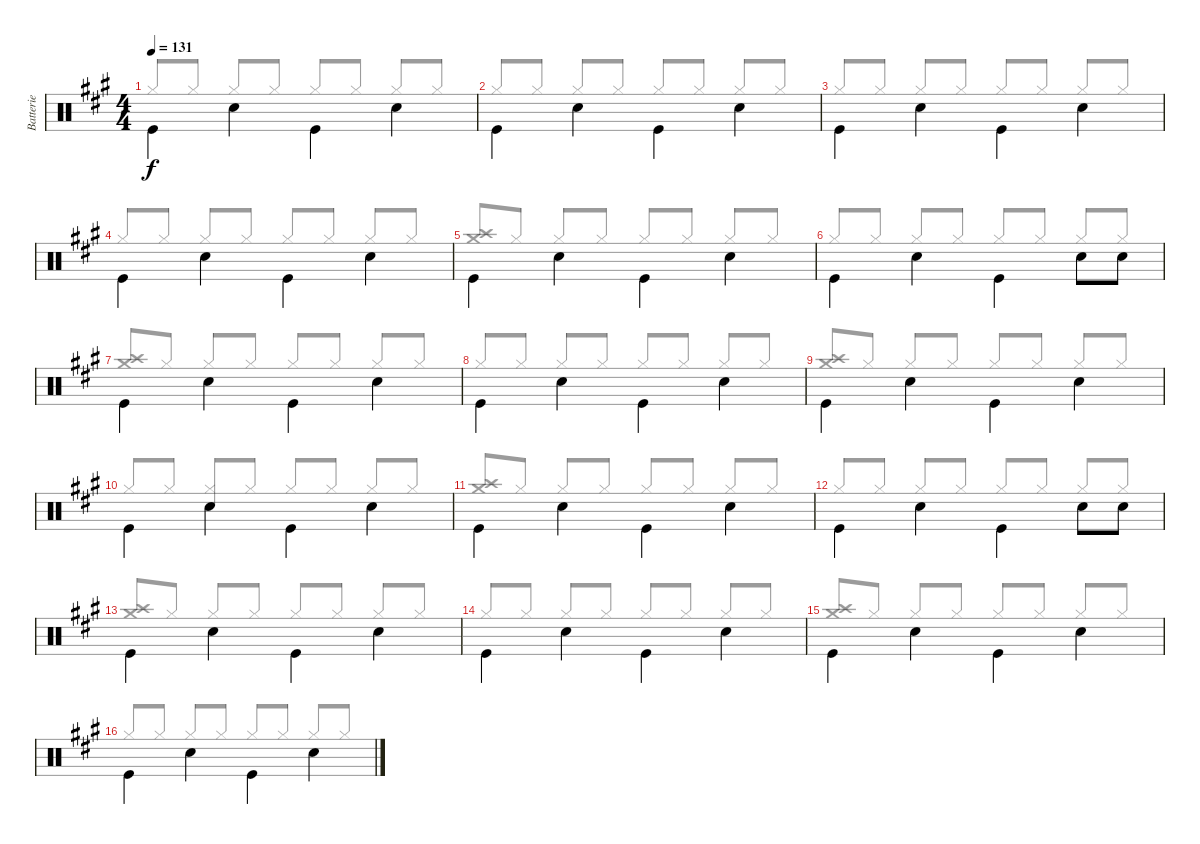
\track ("Batterie" "Batterie") {instrument percussion}
\staff {score}
\articulation defaults
\voice
\ts (4 4)
\tempo 131
\clef neutral
\ks a "Kick (hit)".4{dy f beam Down} "Snare (hit) 2".4{beam Down} "Kick (hit)".4{beam Down} "Snare (hit) 2".4{beam Down}
|
"Kick (hit)".4{beam Down} "Snare (hit) 2".4{beam Down} "Kick (hit)".4{beam Down} "Snare (hit) 2".4{beam Down} |
"Kick (hit)".4{beam Down} "Snare (hit) 2".4{beam Down} "Kick (hit)".4{beam Down} "Snare (hit) 2".4{beam Down} |
"Kick (hit)".4{beam Down} "Snare (hit) 2".4{beam Down} "Kick (hit)".4{beam Down} "Snare (hit) 2".4{beam Down} |
"Kick (hit)".4{beam Down} "Snare (hit) 2".4{beam Down} "Kick (hit)".4{beam Down} "Snare (hit) 2".4{beam Down} |
"Kick (hit)".4{beam Down} "Snare (hit) 2".4{beam Down} "Kick (hit)".4{beam Down} "Snare (hit) 2".8{beam Down} "Snare (hit) 2".8{beam Down} |
"Kick (hit)".4{beam Down} "Snare (hit) 2".4{beam Down} "Kick (hit)".4{beam Down} "Snare (hit) 2".4{beam Down} |
"Kick (hit)".4{beam Down} "Snare (hit) 2".4{beam Down} "Kick (hit)".4{beam Down} "Snare (hit) 2".4{beam Down} |
"Kick (hit)".4{beam Down} "Snare (hit) 2".4{beam Down} "Kick (hit)".4{beam Down} "Snare (hit) 2".4{beam Down} |
"Kick (hit)".4{beam Down} "Snare (hit) 2".4{beam Down} "Kick (hit)".4{beam Down} "Snare (hit) 2".4{beam Down} |
"Kick (hit)".4{beam Down} "Snare (hit) 2".4{beam Down} "Kick (hit)".4{beam Down} "Snare (hit) 2".4{beam Down} |
"Kick (hit)".4{beam Down} "Snare (hit) 2".4{beam Down} "Kick (hit)".4{beam Down} "Snare (hit) 2".8{beam Down} "Snare (hit) 2".8{beam Down} |
"Kick (hit)".4{beam Down} "Snare (hit) 2".4{beam Down} "Kick (hit)".4{beam Down} "Snare (hit) 2".4{beam Down} |
"Kick (hit)".4{beam Down} "Snare (hit) 2".4{beam Down} "Kick (hit)".4{beam Down} "Snare (hit) 2".4{beam Down} |
"Kick (hit)".4{beam Down} "Snare (hit) 2".4{beam Down} "Kick (hit)".4{beam Down} "Snare (hit) 2".4{beam Down} |
"Kick (hit)".4{beam Down} "Snare (hit) 2".4{beam Down} "Kick (hit)".4{beam Down} "Snare (hit) 2".4{beam Down}
\voice
\clef neutral
\ottava regular
\simile none
\ks a "Hi-Hat (closed)".8{dy f beam Up} "Hi-Hat (closed)".8{beam Up} "Hi-Hat (closed)".8{beam Up} "Hi-Hat (closed)".8{beam Up} "Hi-Hat (closed)".8{beam Up} "Hi-Hat (closed)".8{beam Up} "Hi-Hat (closed)".8{beam Up} "Hi-Hat (closed)".8{beam Up}
|
"Hi-Hat (closed)".8{beam Up} "Hi-Hat (closed)".8{beam Up} "Hi-Hat (closed)".8{beam Up} "Hi-Hat (closed)".8{beam Up} "Hi-Hat (closed)".8{beam Up} "Hi-Hat (closed)".8{beam Up} "Hi-Hat (closed)".8{beam Up} "Hi-Hat (closed)".8{beam Up} |
"Hi-Hat (closed)".8{beam Up} "Hi-Hat (closed)".8{beam Up} "Hi-Hat (closed)".8{beam Up} "Hi-Hat (closed)".8{beam Up} "Hi-Hat (closed)".8{beam Up} "Hi-Hat (closed)".8{beam Up} "Hi-Hat (closed)".8{beam Up} "Hi-Hat (closed)".8{beam Up} |
"Hi-Hat (closed)".8{beam Up} "Hi-Hat (closed)".8{beam Up} "Hi-Hat (closed)".8{beam Up} "Hi-Hat (closed)".8{beam Up} "Hi-Hat (closed)".8{beam Up} "Hi-Hat (closed)".8{beam Up} "Hi-Hat (closed)".8{beam Up} "Hi-Hat (closed)".8{beam Up} |
("Crash medium (hit)" "Crash high (hit)").8{beam Up} "Hi-Hat (closed)".8{beam Up} "Hi-Hat (closed)".8{beam Up} "Hi-Hat (closed)".8{beam Up} "Hi-Hat (closed)".8{beam Up} "Hi-Hat (closed)".8{beam Up} "Hi-Hat (closed)".8{beam Up} "Hi-Hat (closed)".8{beam Up} |
"Hi-Hat (closed)".8{beam Up} "Hi-Hat (closed)".8{beam Up} "Hi-Hat (closed)".8{beam Up} "Hi-Hat (closed)".8{beam Up} "Hi-Hat (closed)".8{beam Up} "Hi-Hat (closed)".8{beam Up} "Hi-Hat (closed)".8{beam Up} "Hi-Hat (closed)".8{beam Up} |
("Crash medium (hit)" "Crash high (hit)").8{beam Up} "Hi-Hat (closed)".8{beam Up} "Hi-Hat (closed)".8{beam Up} "Hi-Hat (closed)".8{beam Up} "Hi-Hat (closed)".8{beam Up} "Hi-Hat (closed)".8{beam Up} "Hi-Hat (closed)".8{beam Up} "Hi-Hat (closed)".8{beam Up} |
"Hi-Hat (closed)".8{beam Up} "Hi-Hat (closed)".8{beam Up} "Hi-Hat (closed)".8{beam Up} "Hi-Hat (closed)".8{beam Up} "Hi-Hat (closed)".8{beam Up} "Hi-Hat (closed)".8{beam Up} "Hi-Hat (closed)".8{beam Up} "Hi-Hat (closed)".8{beam Up} |
("Crash medium (hit)" "Crash high (hit)").8{beam Up} "Hi-Hat (closed)".8{beam Up} "Hi-Hat (closed)".8{beam Up} "Hi-Hat (closed)".8{beam Up} "Hi-Hat (closed)".8{beam Up} "Hi-Hat (closed)".8{beam Up} "Hi-Hat (closed)".8{beam Up} "Hi-Hat (closed)".8{beam Up} |
"Hi-Hat (closed)".8{beam Up} "Hi-Hat (closed)".8{beam Up} ("Electric Snare (hit)" "Hi-Hat (closed)").8{beam Up} "Hi-Hat (closed)".8{beam Up} "Hi-Hat (closed)".8{beam Up} "Hi-Hat (closed)".8{beam Up} "Hi-Hat (closed)".8{beam Up} "Hi-Hat (closed)".8{beam Up} |
("Crash medium (hit)" "Crash high (hit)").8{beam Up} "Hi-Hat (closed)".8{beam Up} "Hi-Hat (closed)".8{beam Up} "Hi-Hat (closed)".8{beam Up} "Hi-Hat (closed)".8{beam Up} "Hi-Hat (closed)".8{beam Up} "Hi-Hat (closed)".8{beam Up} "Hi-Hat (closed)".8{beam Up} |
"Hi-Hat (closed)".8{beam Up} "Hi-Hat (closed)".8{beam Up} "Hi-Hat (closed)".8{beam Up} "Hi-Hat (closed)".8{beam Up} "Hi-Hat (closed)".8{beam Up} "Hi-Hat (closed)".8{beam Up} "Hi-Hat (closed)".8{beam Up} "Hi-Hat (closed)".8{beam Up} |
("Crash medium (hit)" "Crash high (hit)").8{beam Up} "Hi-Hat (closed)".8{beam Up} "Hi-Hat (closed)".8{beam Up} "Hi-Hat (closed)".8{beam Up} "Hi-Hat (closed)".8{beam Up} "Hi-Hat (closed)".8{beam Up} "Hi-Hat (closed)".8{beam Up} "Hi-Hat (closed)".8{beam Up} |
"Hi-Hat (closed)".8{beam Up} "Hi-Hat (closed)".8{beam Up} "Hi-Hat (closed)".8{beam Up} "Hi-Hat (closed)".8{beam Up} "Hi-Hat (closed)".8{beam Up} "Hi-Hat (closed)".8{beam Up} "Hi-Hat (closed)".8{beam Up} "Hi-Hat (closed)".8{beam Up} |
("Crash medium (hit)" "Crash high (hit)").8{beam Up} "Hi-Hat (closed)".8{beam Up} "Hi-Hat (closed)".8{beam Up} "Hi-Hat (closed)".8{beam Up} "Hi-Hat (closed)".8{beam Up} "Hi-Hat (closed)".8{beam Up} "Hi-Hat (closed)".8{beam Up} "Hi-Hat (closed)".8{beam Up} |
"Hi-Hat (closed)".8{beam Up} "Hi-Hat (closed)".8{beam Up} "Hi-Hat (closed)".8{beam Up} "Hi-Hat (closed)".8{beam Up} "Hi-Hat (closed)".8{beam Up} "Hi-Hat (closed)".8{beam Up} "Hi-Hat (closed)".8{beam Up} "Hi-Hat (closed)".8{beam Up}
